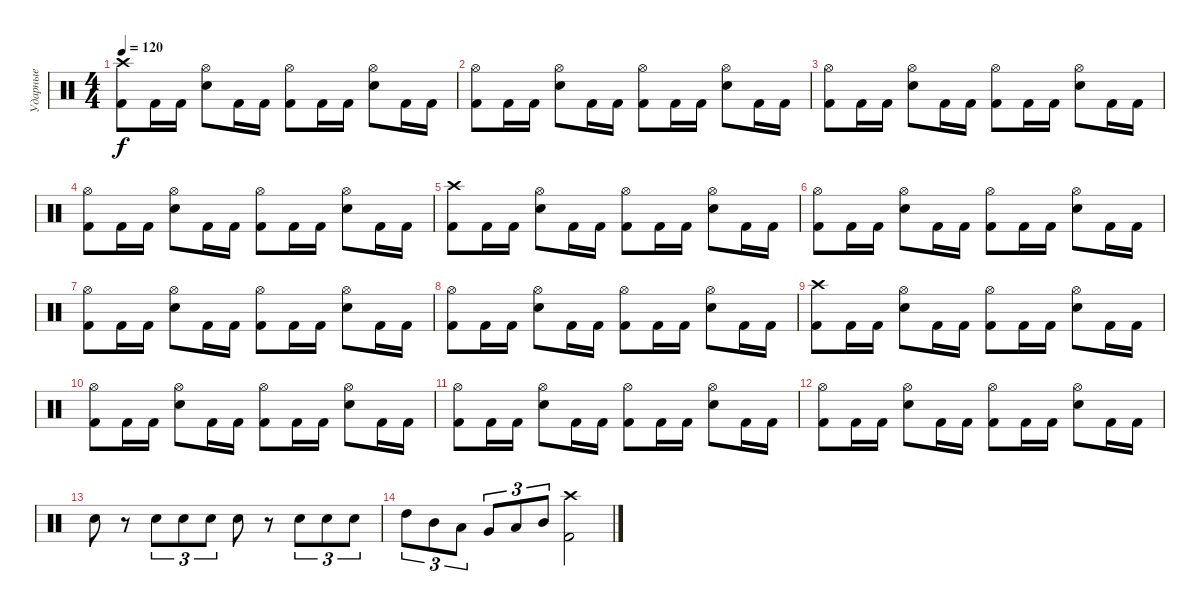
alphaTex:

\track ("Ударные" "Ударные") {instrument percussion}
\staff {score}
\articulation defaults
\ts (4 4)
\tempo 120
\clef neutral
\ks c
("Kick (hit) 2" "Crash high (hit)").8{dy f} "Kick (hit) 2".16 "Kick (hit) 2".16 ("Snare (hit) 2" "Hi-Hat (open)").8 "Kick (hit) 2".16 "Kick (hit) 2".16 ("Kick (hit) 2" "Hi-Hat (open)").8 "Kick (hit) 2".16 "Kick (hit) 2".16 ("Snare (hit) 2" "Hi-Hat (open)").8 "Kick (hit) 2".16 "Kick (hit) 2".16 |
("Kick (hit) 2" "Hi-Hat (open)").8 "Kick (hit) 2".16 "Kick (hit) 2".16 ("Snare (hit) 2" "Hi-Hat (open)").8 "Kick (hit) 2".16 "Kick (hit) 2".16 ("Kick (hit) 2" "Hi-Hat (open)").8 "Kick (hit) 2".16 "Kick (hit) 2".16 ("Snare (hit) 2" "Hi-Hat (open)").8 "Kick (hit) 2".16 "Kick (hit) 2".16 |
("Kick (hit) 2" "Hi-Hat (open)").8 "Kick (hit) 2".16 "Kick (hit) 2".16 ("Snare (hit) 2" "Hi-Hat (open)").8 "Kick (hit) 2".16 "Kick (hit) 2".16 ("Kick (hit) 2" "Hi-Hat (open)").8 "Kick (hit) 2".16 "Kick (hit) 2".16 ("Snare (hit) 2" "Hi-Hat (open)").8 "Kick (hit) 2".16 "Kick (hit) 2".16 |
("Kick (hit) 2" "Hi-Hat (open)").8 "Kick (hit) 2".16 "Kick (hit) 2".16 ("Snare (hit) 2" "Hi-Hat (open)").8 "Kick (hit) 2".16 "Kick (hit) 2".16 ("Kick (hit) 2" "Hi-Hat (open)").8 "Kick (hit) 2".16 "Kick (hit) 2".16 ("Snare (hit) 2" "Hi-Hat (open)").8 "Kick (hit) 2".16 "Kick (hit) 2".16 |
("Kick (hit) 2" "Crash high (hit)").8 "Kick (hit) 2".16 "Kick (hit) 2".16 ("Snare (hit) 2" "Hi-Hat (open)").8 "Kick (hit) 2".16 "Kick (hit) 2".16 ("Kick (hit) 2" "Hi-Hat (open)").8 "Kick (hit) 2".16 "Kick (hit) 2".16 ("Snare (hit) 2" "Hi-Hat (open)").8 "Kick (hit) 2".16 "Kick (hit) 2".16 |
("Kick (hit) 2" "Hi-Hat (open)").8 "Kick (hit) 2".16 "Kick (hit) 2".16 ("Snare (hit) 2" "Hi-Hat (open)").8 "Kick (hit) 2".16 "Kick (hit) 2".16 ("Kick (hit) 2" "Hi-Hat (open)").8 "Kick (hit) 2".16 "Kick (hit) 2".16 ("Snare (hit) 2" "Hi-Hat (open)").8 "Kick (hit) 2".16 "Kick (hit) 2".16 |
("Kick (hit) 2" "Hi-Hat (open)").8 "Kick (hit) 2".16 "Kick (hit) 2".16 ("Snare (hit) 2" "Hi-Hat (open)").8 "Kick (hit) 2".16 "Kick (hit) 2".16 ("Kick (hit) 2" "Hi-Hat (open)").8 "Kick (hit) 2".16 "Kick (hit) 2".16 ("Snare (hit) 2" "Hi-Hat (open)").8 "Kick (hit) 2".16 "Kick (hit) 2".16 |
("Kick (hit) 2" "Hi-Hat (open)").8 "Kick (hit) 2".16 "Kick (hit) 2".16 ("Snare (hit) 2" "Hi-Hat (open)").8 "Kick (hit) 2".16 "Kick (hit) 2".16 ("Kick (hit) 2" "Hi-Hat (open)").8 "Kick (hit) 2".16 "Kick (hit) 2".16 ("Snare (hit) 2" "Hi-Hat (open)").8 "Kick (hit) 2".16 "Kick (hit) 2".16 |
("Kick (hit) 2" "Crash high (hit)").8 "Kick (hit) 2".16 "Kick (hit) 2".16 ("Snare (hit) 2" "Hi-Hat (open)").8 "Kick (hit) 2".16 "Kick (hit) 2".16 ("Kick (hit) 2" "Hi-Hat (open)").8 "Kick (hit) 2".16 "Kick (hit) 2".16 ("Snare (hit) 2" "Hi-Hat (open)").8 "Kick (hit) 2".16 "Kick (hit) 2".16 |
("Kick (hit) 2" "Hi-Hat (open)").8 "Kick (hit) 2".16 "Kick (hit) 2".16 ("Snare (hit) 2" "Hi-Hat (open)").8 "Kick (hit) 2".16 "Kick (hit) 2".16 ("Kick (hit) 2" "Hi-Hat (open)").8 "Kick (hit) 2".16 "Kick (hit) 2".16 ("Snare (hit) 2" "Hi-Hat (open)").8 "Kick (hit) 2".16 "Kick (hit) 2".16 |
("Kick (hit) 2" "Hi-Hat (open)").8 "Kick (hit) 2".16 "Kick (hit) 2".16 ("Snare (hit) 2" "Hi-Hat (open)").8 "Kick (hit) 2".16 "Kick (hit) 2".16 ("Kick (hit) 2" "Hi-Hat (open)").8 "Kick (hit) 2".16 "Kick (hit) 2".16 ("Snare (hit) 2" "Hi-Hat (open)").8 "Kick (hit) 2".16 "Kick (hit) 2".16 |
("Kick (hit) 2" "Hi-Hat (open)").8 "Kick (hit) 2".16 "Kick (hit) 2".16 ("Snare (hit) 2" "Hi-Hat (open)").8 "Kick (hit) 2".16 "Kick (hit) 2".16 ("Kick (hit) 2" "Hi-Hat (open)").8 "Kick (hit) 2".16 "Kick (hit) 2".16 ("Snare (hit) 2" "Hi-Hat (open)").8 "Kick (hit) 2".16 "Kick (hit) 2".16 |
"Electric Snare (hit)".8 r.8 "Electric Snare (hit)".8{tu (3 2)} "Electric Snare (hit)".8{tu (3 2)} "Electric Snare (hit)".8{tu (3 2)} "Electric Snare (hit)".8 r.8 "Electric Snare (hit)".8{tu (3 2)} "Electric Snare (hit)".8{tu (3 2)} "Electric Snare (hit)".8{tu (3 2)} |
"High Tom (hit)".8{tu (3 2)} "Mid Tom (hit)".8{tu (3 2)} "Low Tom (hit)".8{tu (3 2)} "Very Low Tom (hit)".8{tu (3 2)} "Low Tom (hit)".8{tu (3 2)} "Mid Tom (hit)".8{tu (3 2)} ("Crash high (hit)" "Kick (hit) 2").2
